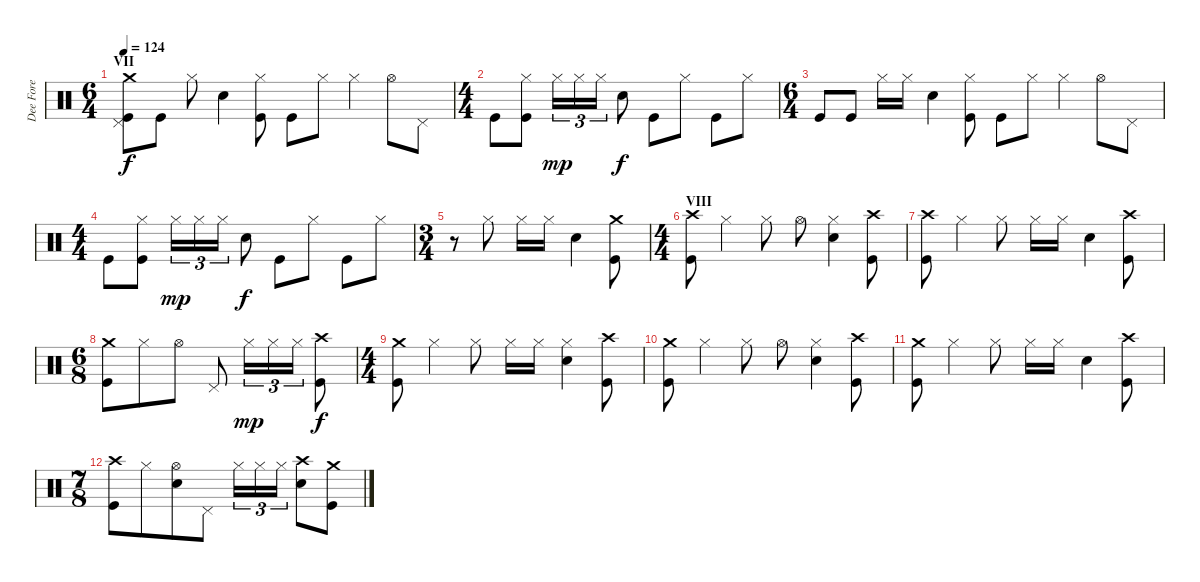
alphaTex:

\track ("Dee Fore" "Dee Fore") {instrument percussion}
\staff {score}
\articulation defaults
\ts (6 4)
\section ("" "VII")
\tempo 124
\clef neutral
\ks c
("Crash medium (hit)" "Pedal Hi-Hat (hit)" "Kick (hit)").8{dy f} "Kick (hit)".8 "Hi-Hat (closed)".8 "Electric Snare (hit)".4 ("Hi-Hat (closed)" "Kick (hit)").8 "Kick (hit)".8 "Hi-Hat (closed)".8 "Hi-Hat (closed)".4 "Hi-Hat (open)".8 "Pedal Hi-Hat (hit)".8 |
\ts (4 4)
"Kick (hit)".8 ("Hi-Hat (closed)" "Kick (hit)").8 "Hi-Hat (closed)".16{tu (3 2) dy mp} "Hi-Hat (closed)".16{tu (3 2)} "Hi-Hat (closed)".16{tu (3 2)} "Electric Snare (hit)".8{dy f} "Kick (hit)".8 "Hi-Hat (closed)".8 "Kick (hit)".8 "Hi-Hat (closed)".8 |
\ts (6 4)
"Kick (hit)".8 "Kick (hit)".8 "Hi-Hat (closed)".16 "Hi-Hat (closed)".16 "Electric Snare (hit)".4 ("Hi-Hat (closed)" "Kick (hit)").8 "Kick (hit)".8 "Hi-Hat (closed)".8 "Hi-Hat (closed)".4 "Hi-Hat (open)".8 "Pedal Hi-Hat (hit)".8 |
\ts (4 4)
"Kick (hit)".8 ("Hi-Hat (closed)" "Kick (hit)").8 "Hi-Hat (closed)".16{tu (3 2) dy mp} "Hi-Hat (closed)".16{tu (3 2)} "Hi-Hat (closed)".16{tu (3 2)} "Electric Snare (hit)".8{dy f} "Kick (hit)".8 "Hi-Hat (closed)".8 "Kick (hit)".8 "Hi-Hat (closed)".8 |
\ts (3 4)
r.8 "Hi-Hat (closed)".8 "Hi-Hat (closed)".16 "Hi-Hat (closed)".16 "Electric Snare (hit)".4 ("Crash medium (hit)" "Kick (hit)").8 |
\ts (4 4)
\section ("" "VIII")
("Crash high (hit)" "Kick (hit)").8 "Hi-Hat (closed)".4 "Hi-Hat (closed)".8 "Hi-Hat (open)".8 ("Hi-Hat (closed)" "Electric Snare (hit)").4 ("Crash high (hit)" "Kick (hit)").8 |
("Crash high (hit)" "Kick (hit)").8 "Hi-Hat (closed)".4 "Hi-Hat (closed)".8 "Hi-Hat (closed)".16 "Hi-Hat (closed)".16 "Electric Snare (hit)".4 ("Crash high (hit)" "Kick (hit)").8 |
\ts (6 8)
("Crash medium (hit)" "Kick (hit)").8 "Hi-Hat (closed)".8 "Hi-Hat (open)".8 "Pedal Hi-Hat (hit)".8 "Hi-Hat (closed)".16{tu (3 2) dy mp} "Hi-Hat (closed)".16{tu (3 2)} "Hi-Hat (closed)".16{tu (3 2)} ("Crash high (hit)" "Kick (hit)").8{dy f} |
\ts (4 4)
("Crash medium (hit)" "Kick (hit)").8 "Hi-Hat (closed)".4 "Hi-Hat (closed)".8 "Hi-Hat (closed)".16 "Hi-Hat (closed)".16 ("Hi-Hat (closed)" "Electric Snare (hit)").4 ("Crash high (hit)" "Kick (hit)").8 |
("Crash medium (hit)" "Kick (hit)").8 "Hi-Hat (closed)".4 "Hi-Hat (closed)".8 "Hi-Hat (open)".8 ("Hi-Hat (closed)" "Electric Snare (hit)").4 ("Crash high (hit)" "Kick (hit)").8 |
("Crash medium (hit)" "Kick (hit)").8 "Hi-Hat (closed)".4 "Hi-Hat (closed)".8 "Hi-Hat (closed)".16 "Hi-Hat (closed)".16 "Electric Snare (hit)".4 ("Crash high (hit)" "Kick (hit)").8 |
\ts (7 8)
("Crash high (hit)" "Kick (hit)").8 "Hi-Hat (closed)".8 ("Hi-Hat (open)" "Electric Snare (hit)").8 "Pedal Hi-Hat (hit)".8 "Hi-Hat (closed)".16{tu (3 2)} "Hi-Hat (closed)".16{tu (3 2)} "Hi-Hat (closed)".16{tu (3 2)} ("Crash high (hit)" "Electric Snare (hit)").8 ("Crash medium (hit)" "Kick (hit)").8
